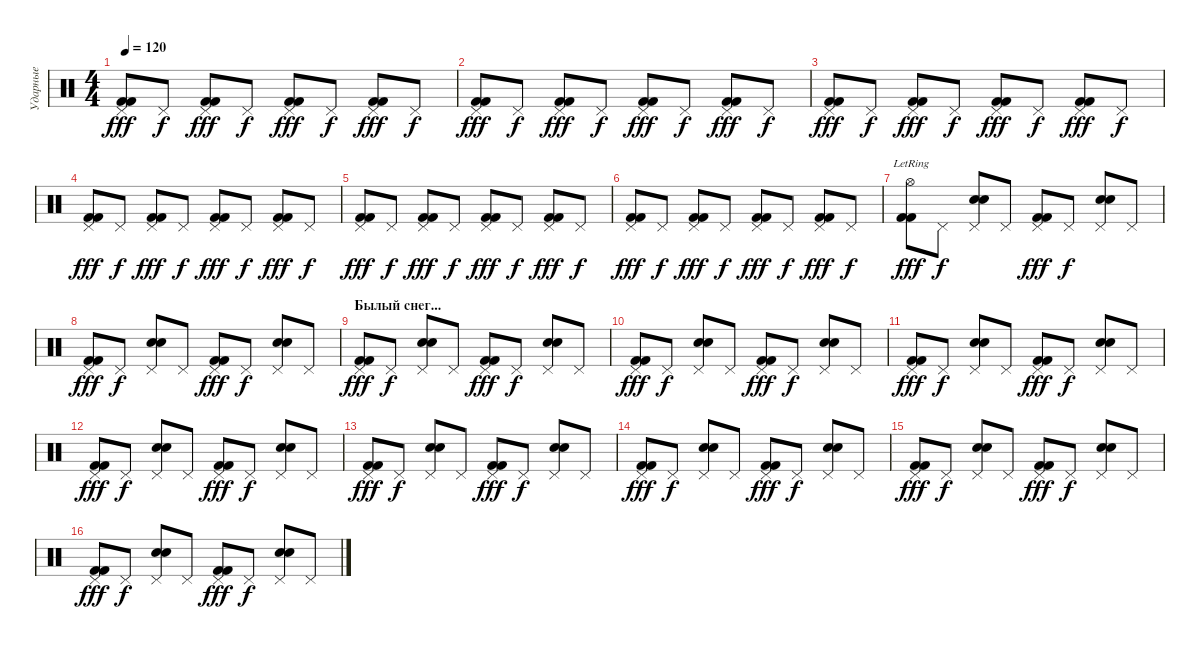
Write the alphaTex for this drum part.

\track ("Ударные" "Ударные") {instrument percussion}
\staff {score}
\articulation defaults
\ts (4 4)
\tempo 120
\clef neutral
\ks c
("Kick (hit) 2" "Kick (hit) 2" "Pedal Hi-Hat (hit)").8{dy fff} "Pedal Hi-Hat (hit)".8{dy f} ("Kick (hit) 2" "Kick (hit) 2" "Pedal Hi-Hat (hit)").8{dy fff} "Pedal Hi-Hat (hit)".8{dy f} ("Kick (hit) 2" "Kick (hit) 2" "Pedal Hi-Hat (hit)").8{dy fff} "Pedal Hi-Hat (hit)".8{dy f} ("Kick (hit) 2" "Kick (hit) 2" "Pedal Hi-Hat (hit)").8{dy fff} "Pedal Hi-Hat (hit)".8{dy f} |
("Kick (hit) 2" "Kick (hit) 2" "Pedal Hi-Hat (hit)").8{dy fff} "Pedal Hi-Hat (hit)".8{dy f} ("Kick (hit) 2" "Kick (hit) 2" "Pedal Hi-Hat (hit)").8{dy fff} "Pedal Hi-Hat (hit)".8{dy f} ("Kick (hit) 2" "Kick (hit) 2" "Pedal Hi-Hat (hit)").8{dy fff} "Pedal Hi-Hat (hit)".8{dy f} ("Kick (hit) 2" "Kick (hit) 2" "Pedal Hi-Hat (hit)").8{dy fff} "Pedal Hi-Hat (hit)".8{dy f} |
("Kick (hit) 2" "Kick (hit) 2" "Pedal Hi-Hat (hit)").8{dy fff} "Pedal Hi-Hat (hit)".8{dy f} ("Kick (hit) 2" "Kick (hit) 2" "Pedal Hi-Hat (hit)").8{dy fff} "Pedal Hi-Hat (hit)".8{dy f} ("Kick (hit) 2" "Kick (hit) 2" "Pedal Hi-Hat (hit)").8{dy fff} "Pedal Hi-Hat (hit)".8{dy f} ("Kick (hit) 2" "Kick (hit) 2" "Pedal Hi-Hat (hit)").8{dy fff} "Pedal Hi-Hat (hit)".8{dy f} |
("Kick (hit) 2" "Kick (hit) 2" "Pedal Hi-Hat (hit)").8{dy fff} "Pedal Hi-Hat (hit)".8{dy f} ("Kick (hit) 2" "Kick (hit) 2" "Pedal Hi-Hat (hit)").8{dy fff} "Pedal Hi-Hat (hit)".8{dy f} ("Kick (hit) 2" "Kick (hit) 2" "Pedal Hi-Hat (hit)").8{dy fff} "Pedal Hi-Hat (hit)".8{dy f} ("Kick (hit) 2" "Kick (hit) 2" "Pedal Hi-Hat (hit)").8{dy fff} "Pedal Hi-Hat (hit)".8{dy f} |
("Kick (hit) 2" "Kick (hit) 2" "Pedal Hi-Hat (hit)").8{dy fff} "Pedal Hi-Hat (hit)".8{dy f} ("Kick (hit) 2" "Kick (hit) 2" "Pedal Hi-Hat (hit)").8{dy fff} "Pedal Hi-Hat (hit)".8{dy f} ("Kick (hit) 2" "Kick (hit) 2" "Pedal Hi-Hat (hit)").8{dy fff} "Pedal Hi-Hat (hit)".8{dy f} ("Kick (hit) 2" "Kick (hit) 2" "Pedal Hi-Hat (hit)").8{dy fff} "Pedal Hi-Hat (hit)".8{dy f} |
("Kick (hit) 2" "Kick (hit) 2" "Pedal Hi-Hat (hit)").8{dy fff} "Pedal Hi-Hat (hit)".8{dy f} ("Kick (hit) 2" "Kick (hit) 2" "Pedal Hi-Hat (hit)").8{dy fff} "Pedal Hi-Hat (hit)".8{dy f} ("Kick (hit) 2" "Kick (hit) 2" "Pedal Hi-Hat (hit)").8{dy fff} "Pedal Hi-Hat (hit)".8{dy f} ("Kick (hit) 2" "Kick (hit) 2" "Pedal Hi-Hat (hit)").8{dy fff} "Pedal Hi-Hat (hit)".8{dy f} |
("Kick (hit) 2" "Kick (hit) 2" "Hi-Hat (open)"{lr}).8{dy fff} "Pedal Hi-Hat (hit)".8{dy f} ("Electric Snare (hit)" "Electric Snare (hit)" "Pedal Hi-Hat (hit)").8 "Pedal Hi-Hat (hit)".8 ("Kick (hit) 2" "Kick (hit) 2" "Pedal Hi-Hat (hit)").8{dy fff} "Pedal Hi-Hat (hit)".8{dy f} ("Electric Snare (hit)" "Electric Snare (hit)" "Pedal Hi-Hat (hit)").8 "Pedal Hi-Hat (hit)".8 |
("Kick (hit) 2" "Kick (hit) 2" "Pedal Hi-Hat (hit)").8{dy fff} "Pedal Hi-Hat (hit)".8{dy f} ("Electric Snare (hit)" "Electric Snare (hit)" "Pedal Hi-Hat (hit)").8 "Pedal Hi-Hat (hit)".8 ("Kick (hit) 2" "Kick (hit) 2" "Pedal Hi-Hat (hit)").8{dy fff} "Pedal Hi-Hat (hit)".8{dy f} ("Electric Snare (hit)" "Electric Snare (hit)" "Pedal Hi-Hat (hit)").8 "Pedal Hi-Hat (hit)".8 |
\section ("" "Былый снег...")
("Kick (hit) 2" "Kick (hit) 2" "Pedal Hi-Hat (hit)").8{dy fff} "Pedal Hi-Hat (hit)".8{dy f} ("Electric Snare (hit)" "Electric Snare (hit)" "Pedal Hi-Hat (hit)").8 "Pedal Hi-Hat (hit)".8 ("Kick (hit) 2" "Kick (hit) 2" "Pedal Hi-Hat (hit)").8{dy fff} "Pedal Hi-Hat (hit)".8{dy f} ("Electric Snare (hit)" "Electric Snare (hit)" "Pedal Hi-Hat (hit)").8 "Pedal Hi-Hat (hit)".8 |
("Kick (hit) 2" "Kick (hit) 2" "Pedal Hi-Hat (hit)").8{dy fff} "Pedal Hi-Hat (hit)".8{dy f} ("Electric Snare (hit)" "Electric Snare (hit)" "Pedal Hi-Hat (hit)").8 "Pedal Hi-Hat (hit)".8 ("Kick (hit) 2" "Kick (hit) 2" "Pedal Hi-Hat (hit)").8{dy fff} "Pedal Hi-Hat (hit)".8{dy f} ("Electric Snare (hit)" "Electric Snare (hit)" "Pedal Hi-Hat (hit)").8 "Pedal Hi-Hat (hit)".8 |
("Kick (hit) 2" "Kick (hit) 2" "Pedal Hi-Hat (hit)").8{dy fff} "Pedal Hi-Hat (hit)".8{dy f} ("Electric Snare (hit)" "Electric Snare (hit)" "Pedal Hi-Hat (hit)").8 "Pedal Hi-Hat (hit)".8 ("Kick (hit) 2" "Kick (hit) 2" "Pedal Hi-Hat (hit)").8{dy fff} "Pedal Hi-Hat (hit)".8{dy f} ("Electric Snare (hit)" "Electric Snare (hit)" "Pedal Hi-Hat (hit)").8 "Pedal Hi-Hat (hit)".8 |
("Kick (hit) 2" "Kick (hit) 2" "Pedal Hi-Hat (hit)").8{dy fff} "Pedal Hi-Hat (hit)".8{dy f} ("Electric Snare (hit)" "Electric Snare (hit)" "Pedal Hi-Hat (hit)").8 "Pedal Hi-Hat (hit)".8 ("Kick (hit) 2" "Kick (hit) 2" "Pedal Hi-Hat (hit)").8{dy fff} "Pedal Hi-Hat (hit)".8{dy f} ("Electric Snare (hit)" "Electric Snare (hit)" "Pedal Hi-Hat (hit)").8 "Pedal Hi-Hat (hit)".8 |
("Kick (hit) 2" "Kick (hit) 2" "Pedal Hi-Hat (hit)").8{dy fff} "Pedal Hi-Hat (hit)".8{dy f} ("Electric Snare (hit)" "Electric Snare (hit)" "Pedal Hi-Hat (hit)").8 "Pedal Hi-Hat (hit)".8 ("Kick (hit) 2" "Kick (hit) 2" "Pedal Hi-Hat (hit)").8{dy fff} "Pedal Hi-Hat (hit)".8{dy f} ("Electric Snare (hit)" "Electric Snare (hit)" "Pedal Hi-Hat (hit)").8 "Pedal Hi-Hat (hit)".8 |
("Kick (hit) 2" "Kick (hit) 2" "Pedal Hi-Hat (hit)").8{dy fff} "Pedal Hi-Hat (hit)".8{dy f} ("Electric Snare (hit)" "Electric Snare (hit)" "Pedal Hi-Hat (hit)").8 "Pedal Hi-Hat (hit)".8 ("Kick (hit) 2" "Kick (hit) 2" "Pedal Hi-Hat (hit)").8{dy fff} "Pedal Hi-Hat (hit)".8{dy f} ("Electric Snare (hit)" "Electric Snare (hit)" "Pedal Hi-Hat (hit)").8 "Pedal Hi-Hat (hit)".8 |
("Kick (hit) 2" "Kick (hit) 2" "Pedal Hi-Hat (hit)").8{dy fff} "Pedal Hi-Hat (hit)".8{dy f} ("Electric Snare (hit)" "Electric Snare (hit)" "Pedal Hi-Hat (hit)").8 "Pedal Hi-Hat (hit)".8 ("Kick (hit) 2" "Kick (hit) 2" "Pedal Hi-Hat (hit)").8{dy fff} "Pedal Hi-Hat (hit)".8{dy f} ("Electric Snare (hit)" "Electric Snare (hit)" "Pedal Hi-Hat (hit)").8 "Pedal Hi-Hat (hit)".8 |
("Kick (hit) 2" "Kick (hit) 2" "Pedal Hi-Hat (hit)").8{dy fff} "Pedal Hi-Hat (hit)".8{dy f} ("Electric Snare (hit)" "Electric Snare (hit)" "Pedal Hi-Hat (hit)").8 "Pedal Hi-Hat (hit)".8 ("Kick (hit) 2" "Kick (hit) 2" "Pedal Hi-Hat (hit)").8{dy fff} "Pedal Hi-Hat (hit)".8{dy f} ("Electric Snare (hit)" "Electric Snare (hit)" "Pedal Hi-Hat (hit)").8 "Pedal Hi-Hat (hit)".8
